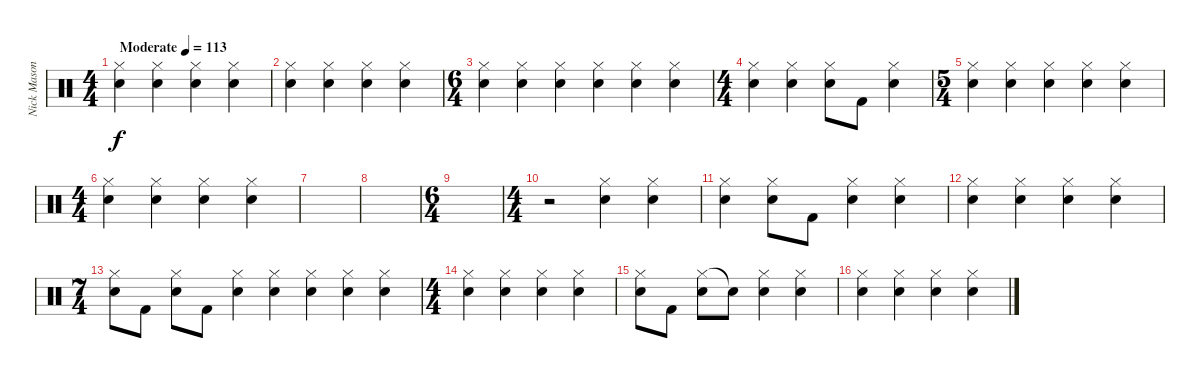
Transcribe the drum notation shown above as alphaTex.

\track ("Nick Mason- Drums" "Nick Mason") {instrument percussion}
\staff {score}
\articulation defaults
\ts (4 4)
\tempo (113 "Moderate")
\clef neutral
\ks c
("Hi-Hat (closed)" "Snare (hit) 2").4{dy f} ("Hi-Hat (closed)" "Snare (hit) 2").4 ("Hi-Hat (closed)" "Snare (hit) 2").4 ("Hi-Hat (closed)" "Snare (hit) 2").4 |
("Hi-Hat (closed)" "Snare (hit) 2").4 ("Hi-Hat (closed)" "Snare (hit) 2").4 ("Hi-Hat (closed)" "Snare (hit) 2").4 ("Hi-Hat (closed)" "Snare (hit) 2").4 |
\ts (6 4)
("Hi-Hat (closed)" "Snare (hit) 2").4 ("Hi-Hat (closed)" "Snare (hit) 2").4 ("Hi-Hat (closed)" "Snare (hit) 2").4 ("Hi-Hat (closed)" "Snare (hit) 2").4 ("Hi-Hat (closed)" "Snare (hit) 2").4 ("Hi-Hat (closed)" "Snare (hit) 2").4 |
\ts (4 4)
("Hi-Hat (closed)" "Snare (hit) 2").4 ("Hi-Hat (closed)" "Snare (hit) 2").4 ("Hi-Hat (closed)" "Snare (hit) 2").8 "Kick (hit) 2".8 ("Hi-Hat (closed)" "Snare (hit) 2").4 |
\ts (5 4)
("Hi-Hat (closed)" "Snare (hit) 2").4 ("Hi-Hat (closed)" "Snare (hit) 2").4 ("Hi-Hat (closed)" "Snare (hit) 2").4 ("Hi-Hat (closed)" "Snare (hit) 2").4 ("Hi-Hat (closed)" "Snare (hit) 2").4 |
\ts (4 4)
("Hi-Hat (closed)" "Snare (hit) 2").4 ("Hi-Hat (closed)" "Snare (hit) 2").4 ("Hi-Hat (closed)" "Snare (hit) 2").4 ("Hi-Hat (closed)" "Snare (hit) 2").4 |
|
|
\ts (6 4)
|
\ts (4 4)
r.2 ("Hi-Hat (closed)" "Snare (hit) 2").4 ("Hi-Hat (closed)" "Snare (hit) 2").4 |
("Hi-Hat (closed)" "Snare (hit) 2").4 ("Hi-Hat (closed)" "Snare (hit) 2").8 "Kick (hit) 2".8 ("Hi-Hat (closed)" "Snare (hit) 2").4 ("Hi-Hat (closed)" "Snare (hit) 2").4 |
("Hi-Hat (closed)" "Snare (hit) 2").4 ("Hi-Hat (closed)" "Snare (hit) 2").4 ("Hi-Hat (closed)" "Snare (hit) 2").4 ("Hi-Hat (closed)" "Snare (hit) 2").4 |
\ts (7 4)
("Hi-Hat (closed)" "Snare (hit) 2").8 "Kick (hit) 2".8 ("Hi-Hat (closed)" "Snare (hit) 2").8 "Kick (hit) 2".8 ("Hi-Hat (closed)" "Snare (hit) 2").4 ("Hi-Hat (closed)" "Snare (hit) 2").4 ("Hi-Hat (closed)" "Snare (hit) 2").4 ("Hi-Hat (closed)" "Snare (hit) 2").4 ("Hi-Hat (closed)" "Snare (hit) 2").4 |
\ts (4 4)
("Hi-Hat (closed)" "Snare (hit) 2").4 ("Hi-Hat (closed)" "Snare (hit) 2").4 ("Hi-Hat (closed)" "Snare (hit) 2").4 ("Hi-Hat (closed)" "Snare (hit) 2").4 |
("Hi-Hat (closed)" "Snare (hit) 2").8 "Kick (hit) 2".8 ("Hi-Hat (closed)" "Snare (hit) 2").8 "Snare (hit)"{t}.8 ("Hi-Hat (closed)" "Snare (hit) 2").4 ("Hi-Hat (closed)" "Snare (hit) 2").4 |
("Hi-Hat (closed)" "Snare (hit) 2").4 ("Hi-Hat (closed)" "Snare (hit) 2").4 ("Hi-Hat (closed)" "Snare (hit) 2").4 ("Hi-Hat (closed)" "Snare (hit) 2").4
